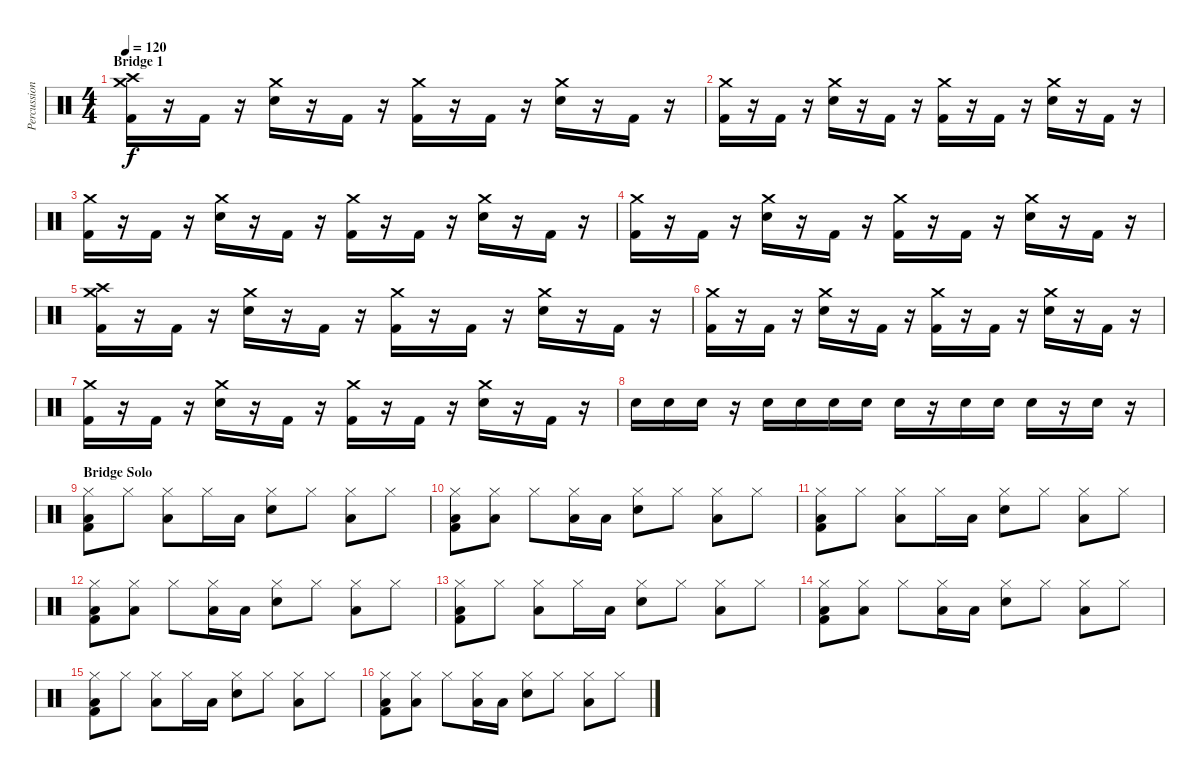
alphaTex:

\track ("Percussion" "Percussion") {instrument percussion}
\staff {score}
\articulation defaults
\ts (4 4)
\section ("" "Bridge 1")
\tempo 120
\clef neutral
\ks c
("Kick (hit) 2" "Crash medium (hit)" "Crash high (hit)").16{dy f} r.16 "Kick (hit) 2".16 r.16 ("Snare (hit) 2" "Crash medium (hit)").16 r.16 "Kick (hit) 2".16 r.16 ("Kick (hit) 2" "Crash medium (hit)").16 r.16 "Kick (hit) 2".16 r.16 ("Snare (hit) 2" "Crash medium (hit)").16 r.16 "Kick (hit) 2".16 r.16 |
("Kick (hit) 2" "Crash medium (hit)").16 r.16 "Kick (hit) 2".16 r.16 ("Snare (hit) 2" "Crash medium (hit)").16 r.16 "Kick (hit) 2".16 r.16 ("Kick (hit) 2" "Crash medium (hit)").16 r.16 "Kick (hit) 2".16 r.16 ("Snare (hit) 2" "Crash medium (hit)").16 r.16 "Kick (hit) 2".16 r.16 |
("Kick (hit) 2" "Crash medium (hit)").16 r.16 "Kick (hit) 2".16 r.16 ("Snare (hit) 2" "Crash medium (hit)").16 r.16 "Kick (hit) 2".16 r.16 ("Kick (hit) 2" "Crash medium (hit)").16 r.16 "Kick (hit) 2".16 r.16 ("Snare (hit) 2" "Crash medium (hit)").16 r.16 "Kick (hit) 2".16 r.16 |
("Kick (hit) 2" "Crash medium (hit)").16 r.16 "Kick (hit) 2".16 r.16 ("Snare (hit) 2" "Crash medium (hit)").16 r.16 "Kick (hit) 2".16 r.16 ("Kick (hit) 2" "Crash medium (hit)").16 r.16 "Kick (hit) 2".16 r.16 ("Snare (hit) 2" "Crash medium (hit)").16 r.16 "Kick (hit) 2".16 r.16 |
("Kick (hit) 2" "Crash medium (hit)" "Crash high (hit)").16 r.16 "Kick (hit) 2".16 r.16 ("Snare (hit) 2" "Crash medium (hit)").16 r.16 "Kick (hit) 2".16 r.16 ("Kick (hit) 2" "Crash medium (hit)").16 r.16 "Kick (hit) 2".16 r.16 ("Snare (hit) 2" "Crash medium (hit)").16 r.16 "Kick (hit) 2".16 r.16 |
("Kick (hit) 2" "Crash medium (hit)").16 r.16 "Kick (hit) 2".16 r.16 ("Snare (hit) 2" "Crash medium (hit)").16 r.16 "Kick (hit) 2".16 r.16 ("Kick (hit) 2" "Crash medium (hit)").16 r.16 "Kick (hit) 2".16 r.16 ("Snare (hit) 2" "Crash medium (hit)").16 r.16 "Kick (hit) 2".16 r.16 |
("Kick (hit) 2" "Crash medium (hit)").16 r.16 "Kick (hit) 2".16 r.16 ("Snare (hit) 2" "Crash medium (hit)").16 r.16 "Kick (hit) 2".16 r.16 ("Kick (hit) 2" "Crash medium (hit)").16 r.16 "Kick (hit) 2".16 r.16 ("Snare (hit) 2" "Crash medium (hit)").16 r.16 "Kick (hit) 2".16 r.16 |
"Snare (hit) 2".16 "Snare (hit) 2".16 "Snare (hit) 2".16 r.16 "Snare (hit) 2".16 "Snare (hit) 2".16 "Snare (hit) 2".16 "Snare (hit) 2".16 "Snare (hit) 2".16 r.16 "Snare (hit) 2".16 "Snare (hit) 2".16 "Snare (hit) 2".16 r.16 "Snare (hit) 2".16 r.16 |
\section ("" "Bridge Solo")
("Kick (hit) 2" "Low Tom (hit)" "Hi-Hat (closed)").8 "Hi-Hat (closed)".8 ("Low Tom (hit)" "Hi-Hat (closed)").8 "Hi-Hat (closed)".16 "Low Tom (hit)".16 ("Snare (hit) 2" "Hi-Hat (closed)").8 "Hi-Hat (closed)".8 ("Low Tom (hit)" "Hi-Hat (closed)").8 "Hi-Hat (closed)".8 |
("Kick (hit) 2" "Low Tom (hit)" "Hi-Hat (closed)").8 ("Low Tom (hit)" "Hi-Hat (closed)").8 "Hi-Hat (closed)".8 ("Low Tom (hit)" "Hi-Hat (closed)").16 "Low Tom (hit)".16 ("Snare (hit) 2" "Hi-Hat (closed)").8 "Hi-Hat (closed)".8 ("Low Tom (hit)" "Hi-Hat (closed)").8 "Hi-Hat (closed)".8 |
("Kick (hit) 2" "Low Tom (hit)" "Hi-Hat (closed)").8 "Hi-Hat (closed)".8 ("Low Tom (hit)" "Hi-Hat (closed)").8 "Hi-Hat (closed)".16 "Low Tom (hit)".16 ("Snare (hit) 2" "Hi-Hat (closed)").8 "Hi-Hat (closed)".8 ("Low Tom (hit)" "Hi-Hat (closed)").8 "Hi-Hat (closed)".8 |
("Kick (hit) 2" "Low Tom (hit)" "Hi-Hat (closed)").8 ("Low Tom (hit)" "Hi-Hat (closed)").8 "Hi-Hat (closed)".8 ("Low Tom (hit)" "Hi-Hat (closed)").16 "Low Tom (hit)".16 ("Snare (hit) 2" "Hi-Hat (closed)").8 "Hi-Hat (closed)".8 ("Low Tom (hit)" "Hi-Hat (closed)").8 "Hi-Hat (closed)".8 |
("Kick (hit) 2" "Low Tom (hit)" "Hi-Hat (closed)").8 "Hi-Hat (closed)".8 ("Low Tom (hit)" "Hi-Hat (closed)").8 "Hi-Hat (closed)".16 "Low Tom (hit)".16 ("Snare (hit) 2" "Hi-Hat (closed)").8 "Hi-Hat (closed)".8 ("Low Tom (hit)" "Hi-Hat (closed)").8 "Hi-Hat (closed)".8 |
("Kick (hit) 2" "Low Tom (hit)" "Hi-Hat (closed)").8 ("Low Tom (hit)" "Hi-Hat (closed)").8 "Hi-Hat (closed)".8 ("Low Tom (hit)" "Hi-Hat (closed)").16 "Low Tom (hit)".16 ("Snare (hit) 2" "Hi-Hat (closed)").8 "Hi-Hat (closed)".8 ("Low Tom (hit)" "Hi-Hat (closed)").8 "Hi-Hat (closed)".8 |
("Kick (hit) 2" "Low Tom (hit)" "Hi-Hat (closed)").8 "Hi-Hat (closed)".8 ("Low Tom (hit)" "Hi-Hat (closed)").8 "Hi-Hat (closed)".16 "Low Tom (hit)".16 ("Snare (hit) 2" "Hi-Hat (closed)").8 "Hi-Hat (closed)".8 ("Low Tom (hit)" "Hi-Hat (closed)").8 "Hi-Hat (closed)".8 |
("Kick (hit) 2" "Low Tom (hit)" "Hi-Hat (closed)").8 ("Low Tom (hit)" "Hi-Hat (closed)").8 "Hi-Hat (closed)".8 ("Low Tom (hit)" "Hi-Hat (closed)").16 "Low Tom (hit)".16 ("Snare (hit) 2" "Hi-Hat (closed)").8 "Hi-Hat (closed)".8 ("Low Tom (hit)" "Hi-Hat (closed)").8 "Hi-Hat (closed)".8
